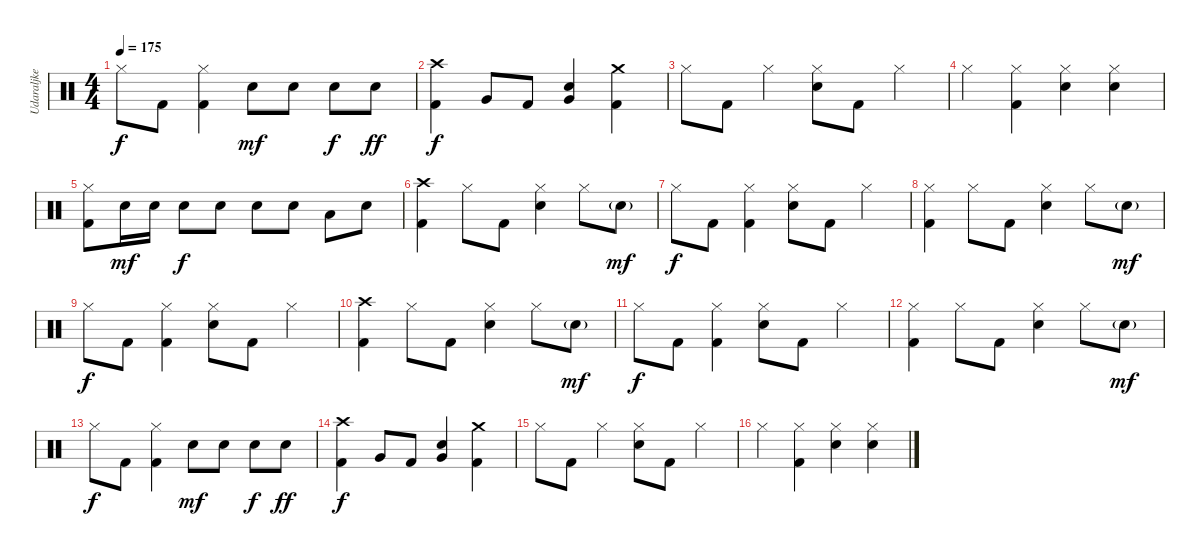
\track ("Udaraljke" "Udaraljke") {instrument percussion}
\staff {score}
\articulation defaults
\ts (4 4)
\tempo 175
\clef neutral
\ks c "Hi-Hat (closed)".8{dy f} "Kick (hit) 2".8
("Hi-Hat (closed)" "Kick (hit) 2").4 "Electric Snare (hit)".8{dy mf} "Electric Snare (hit)".8 "Electric Snare (hit)".8{dy f} "Electric Snare (hit)".8{dy ff} |
("Crash high (hit)" "Kick (hit) 2").4{dy f} "Very Low Tom (hit)".8 "Kick (hit) 2".8 ("Very Low Tom (hit)" "Electric Snare (hit)").4 ("Crash medium (hit)" "Kick (hit) 2").4 |
"Hi-Hat (closed)".8 "Kick (hit) 2".8 "Hi-Hat (closed)".4 ("Hi-Hat (closed)" "Electric Snare (hit)").8 "Kick (hit) 2".8 "Hi-Hat (closed)".4 |
"Hi-Hat (closed)".4 ("Hi-Hat (closed)" "Kick (hit) 2").4 ("Hi-Hat (closed)" "Electric Snare (hit)").4 ("Hi-Hat (closed)" "Electric Snare (hit)").4 |
("Hi-Hat (closed)" "Kick (hit) 2").8 "Electric Snare (hit)".16{dy mf} "Electric Snare (hit)".16 "Electric Snare (hit)".8{dy f} "Electric Snare (hit)".8 "Electric Snare (hit)".8 "Electric Snare (hit)".8 "Low Tom (hit)".8 "Electric Snare (hit)".8 |
("Crash high (hit)" "Kick (hit) 2").4 "Hi-Hat (closed)".8 "Kick (hit) 2".8 ("Hi-Hat (closed)" "Electric Snare (hit)").4 "Hi-Hat (closed)".8 "Electric Snare (hit)"{g}.8{dy mf} |
"Hi-Hat (closed)".8{dy f} "Kick (hit) 2".8 ("Hi-Hat (closed)" "Kick (hit) 2").4 ("Hi-Hat (closed)" "Electric Snare (hit)").8 "Kick (hit) 2".8 "Hi-Hat (closed)".4 |
("Hi-Hat (closed)" "Kick (hit) 2").4 "Hi-Hat (closed)".8 "Kick (hit) 2".8 ("Hi-Hat (closed)" "Electric Snare (hit)").4 "Hi-Hat (closed)".8 "Electric Snare (hit)"{g}.8{dy mf} |
"Hi-Hat (closed)".8{dy f} "Kick (hit) 2".8 ("Hi-Hat (closed)" "Kick (hit) 2").4 ("Hi-Hat (closed)" "Electric Snare (hit)").8 "Kick (hit) 2".8 "Hi-Hat (closed)".4 |
("Crash high (hit)" "Kick (hit) 2").4 "Hi-Hat (closed)".8 "Kick (hit) 2".8 ("Hi-Hat (closed)" "Electric Snare (hit)").4 "Hi-Hat (closed)".8 "Electric Snare (hit)"{g}.8{dy mf} |
"Hi-Hat (closed)".8{dy f} "Kick (hit) 2".8 ("Hi-Hat (closed)" "Kick (hit) 2").4 ("Hi-Hat (closed)" "Electric Snare (hit)").8 "Kick (hit) 2".8 "Hi-Hat (closed)".4 |
("Hi-Hat (closed)" "Kick (hit) 2").4 "Hi-Hat (closed)".8 "Kick (hit) 2".8 ("Hi-Hat (closed)" "Electric Snare (hit)").4 "Hi-Hat (closed)".8 "Electric Snare (hit)"{g}.8{dy mf} |
"Hi-Hat (closed)".8{dy f} "Kick (hit) 2".8 ("Hi-Hat (closed)" "Kick (hit) 2").4 "Electric Snare (hit)".8{dy mf} "Electric Snare (hit)".8 "Electric Snare (hit)".8{dy f} "Electric Snare (hit)".8{dy ff} |
("Crash high (hit)" "Kick (hit) 2").4{dy f} "Very Low Tom (hit)".8 "Kick (hit) 2".8 ("Very Low Tom (hit)" "Electric Snare (hit)").4 ("Crash medium (hit)" "Kick (hit) 2").4 |
"Hi-Hat (closed)".8 "Kick (hit) 2".8 "Hi-Hat (closed)".4 ("Hi-Hat (closed)" "Electric Snare (hit)").8 "Kick (hit) 2".8 "Hi-Hat (closed)".4 |
"Hi-Hat (closed)".4 ("Hi-Hat (closed)" "Kick (hit) 2").4 ("Hi-Hat (closed)" "Electric Snare (hit)").4 ("Hi-Hat (closed)" "Electric Snare (hit)").4
